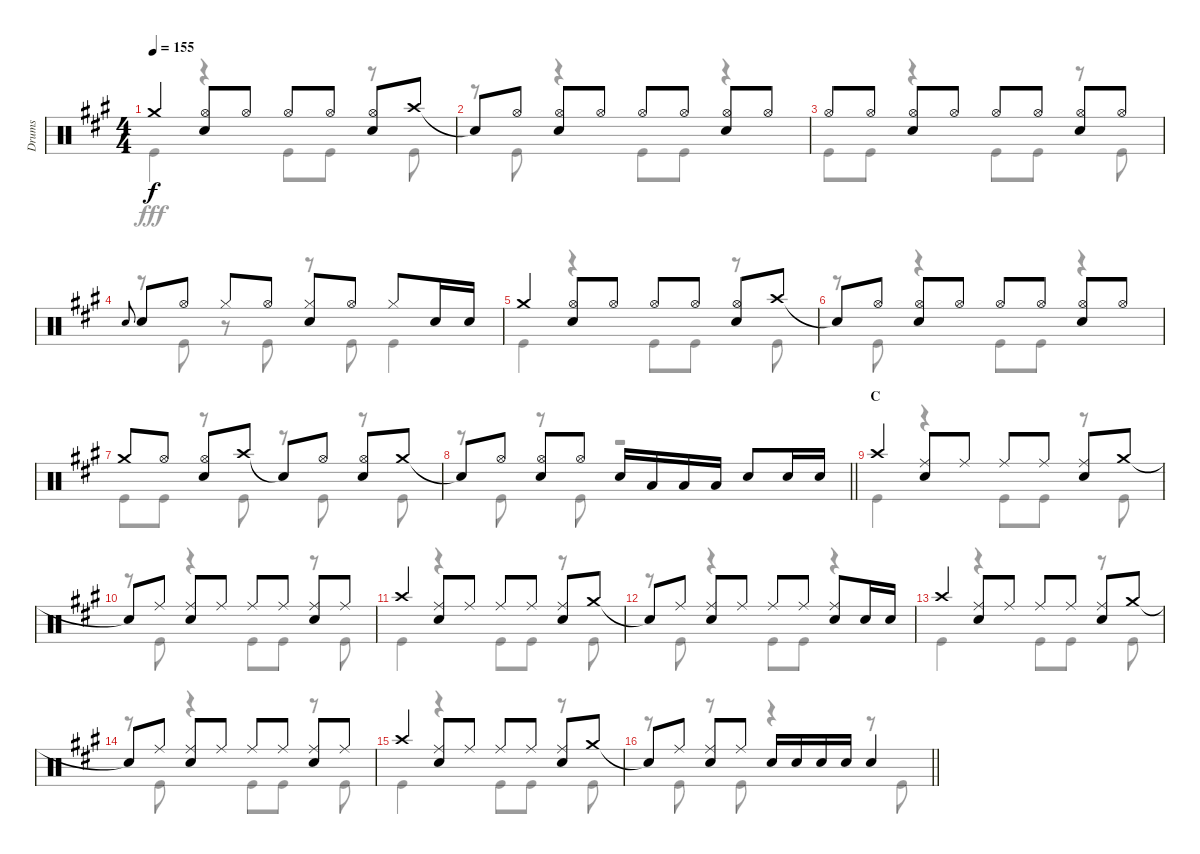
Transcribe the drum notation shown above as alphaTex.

\track ("Drums" "Drums") {instrument percussion}
\staff {score}
\articulation defaults
\voice
\ts (4 4)
\tempo 155
\clef neutral
\ks a "Crash medium (hit)".4{dy f}
("Hi-Hat (open)" "Snare (hit) 2").8 "Hi-Hat (open)".8 "Hi-Hat (open)".8 "Hi-Hat (open)".8 ("Hi-Hat (open)" "Snare (hit) 2").8 "Crash high (hit)".8 |
"Snare (hit)"{t}.8 "Hi-Hat (open)".8 ("Hi-Hat (open)" "Snare (hit) 2").8 "Hi-Hat (open)".8 "Hi-Hat (open)".8 "Hi-Hat (open)".8 ("Hi-Hat (open)" "Snare (hit) 2").8 "Hi-Hat (open)".8 |
"Hi-Hat (open)".8 "Hi-Hat (open)".8 ("Hi-Hat (open)" "Snare (hit) 2").8 "Hi-Hat (open)".8 "Hi-Hat (open)".8 "Hi-Hat (open)".8 ("Hi-Hat (open)" "Snare (hit) 2").8 "Hi-Hat (open)".8 |
"Snare (hit) 2".8{gr onbeat} "Snare (hit) 2".8 "Hi-Hat (open)".8 "Hi-Hat (closed)".8 "Hi-Hat (open)".8 ("Hi-Hat (closed)" "Snare (hit) 2").8 "Hi-Hat (open)".8 "Hi-Hat (closed)".8 "Snare (hit) 2".16 "Snare (hit) 2".16 |
"Crash medium (hit)".4 ("Hi-Hat (open)" "Snare (hit) 2").8 "Hi-Hat (open)".8 "Hi-Hat (open)".8 "Hi-Hat (open)".8 ("Hi-Hat (open)" "Snare (hit) 2").8 "Crash high (hit)".8 |
"Snare (hit)"{t}.8 "Hi-Hat (open)".8 ("Hi-Hat (open)" "Snare (hit) 2").8 "Hi-Hat (open)".8 "Hi-Hat (open)".8 "Hi-Hat (open)".8 ("Hi-Hat (open)" "Snare (hit) 2").8 "Hi-Hat (open)".8 |
"Crash medium (hit)".8 "Hi-Hat (open)".8 ("Hi-Hat (open)" "Snare (hit) 2").8 "Crash high (hit)".8 "Snare (hit)"{t}.8 "Hi-Hat (open)".8 ("Hi-Hat (open)" "Snare (hit) 2").8 "Crash medium (hit)".8 |
\barLineRight lightlight "Snare (hit)"{t}.8 "Hi-Hat (open)".8
("Hi-Hat (open)" "Snare (hit) 2").8 "Hi-Hat (open)".8 "Snare (hit) 2".16 "Low Tom (hit)".16 "Low Tom (hit)".16 "Low Tom (hit)".16 "Snare (hit) 2".8 "Snare (hit) 2".16 "Snare (hit) 2".16 |
\section ("" "C")
"Crash high (hit)".4 ("Ride (middle)" "Snare (hit) 2").8 "Ride (middle)".8 "Ride (middle)".8 "Ride (middle)".8 ("Ride (middle)" "Snare (hit) 2").8 "Crash medium (hit)".8 |
"Snare (hit)"{t}.8 "Ride (middle)".8 ("Ride (middle)" "Snare (hit) 2").8 "Ride (middle)".8 "Ride (middle)".8 "Ride (middle)".8 ("Ride (middle)" "Snare (hit) 2").8 "Ride (middle)".8 |
"Crash high (hit)".4 ("Ride (middle)" "Snare (hit) 2").8 "Ride (middle)".8 "Ride (middle)".8 "Ride (middle)".8 ("Ride (middle)" "Snare (hit) 2").8 "Crash medium (hit)".8 |
"Snare (hit)"{t}.8 "Ride (middle)".8 ("Ride (middle)" "Snare (hit) 2").8 "Ride (middle)".8 "Ride (middle)".8 "Ride (middle)".8 ("Ride (middle)" "Snare (hit) 2").8 "Snare (hit) 2".16 "Snare (hit) 2".16 |
"Crash high (hit)".4 ("Ride (middle)" "Snare (hit) 2").8 "Ride (middle)".8 "Ride (middle)".8 "Ride (middle)".8 ("Ride (middle)" "Snare (hit) 2").8 "Crash medium (hit)".8 |
"Snare (hit)"{t}.8 "Ride (middle)".8 ("Ride (middle)" "Snare (hit) 2").8 "Ride (middle)".8 "Ride (middle)".8 "Ride (middle)".8 ("Ride (middle)" "Snare (hit) 2").8 "Ride (middle)".8 |
"Crash high (hit)".4 ("Ride (middle)" "Snare (hit) 2").8 "Ride (middle)".8 "Ride (middle)".8 "Ride (middle)".8 ("Ride (middle)" "Snare (hit) 2").8 "Crash medium (hit)".8 |
\barLineRight lightlight "Snare (hit)"{t}.8 "Ride (middle)".8
("Ride (middle)" "Snare (hit) 2").8 "Ride (middle)".8 "Snare (hit) 2".16 "Snare (hit) 2".16 "Snare (hit) 2".16 "Snare (hit) 2".16 "Snare (hit) 2".4
\voice
\clef neutral
\ottava regular
\simile none
\ks a "Kick (hit)".4{dy fff}
r.4 "Kick (hit)".8 "Kick (hit)".8 r.8 "Kick (hit)".8 |
r.8 "Kick (hit)".8 r.4 "Kick (hit)".8 "Kick (hit)".8 r.4 |
"Kick (hit)".8 "Kick (hit)".8 r.4 "Kick (hit)".8 "Kick (hit)".8 r.8 "Kick (hit)".8 |
r.8 "Kick (hit)".8 r.8 "Kick (hit)".8 r.8 "Kick (hit)".8 "Kick (hit)".4 |
"Kick (hit)".4 r.4 "Kick (hit)".8 "Kick (hit)".8 r.8 "Kick (hit)".8 |
r.8 "Kick (hit)".8 r.4 "Kick (hit)".8 "Kick (hit)".8 r.4 |
"Kick (hit)".8 "Kick (hit)".8 r.8 "Kick (hit)".8 r.8 "Kick (hit)".8 r.8 "Kick (hit)".8 |
\barLineRight lightlight
r.8 "Kick (hit)".8 r.8 "Kick (hit)".8 r.2 |
"Kick (hit)".4 r.4 "Kick (hit)".8 "Kick (hit)".8 r.8 "Kick (hit)".8 |
r.8 "Kick (hit)".8 r.4 "Kick (hit)".8 "Kick (hit)".8 r.8 "Kick (hit)".8 |
"Kick (hit)".4 r.4 "Kick (hit)".8 "Kick (hit)".8 r.8 "Kick (hit)".8 |
r.8 "Kick (hit)".8 r.4 "Kick (hit)".8 "Kick (hit)".8 r.4 |
"Kick (hit)".4 r.4 "Kick (hit)".8 "Kick (hit)".8 r.8 "Kick (hit)".8 |
r.8 "Kick (hit)".8 r.4 "Kick (hit)".8 "Kick (hit)".8 r.8 "Kick (hit)".8 |
"Kick (hit)".4 r.4 "Kick (hit)".8 "Kick (hit)".8 r.8 "Kick (hit)".8 |
\barLineRight lightlight
r.8 "Kick (hit)".8 r.8 "Kick (hit)".8 r.4 r.8 "Kick (hit)".8
